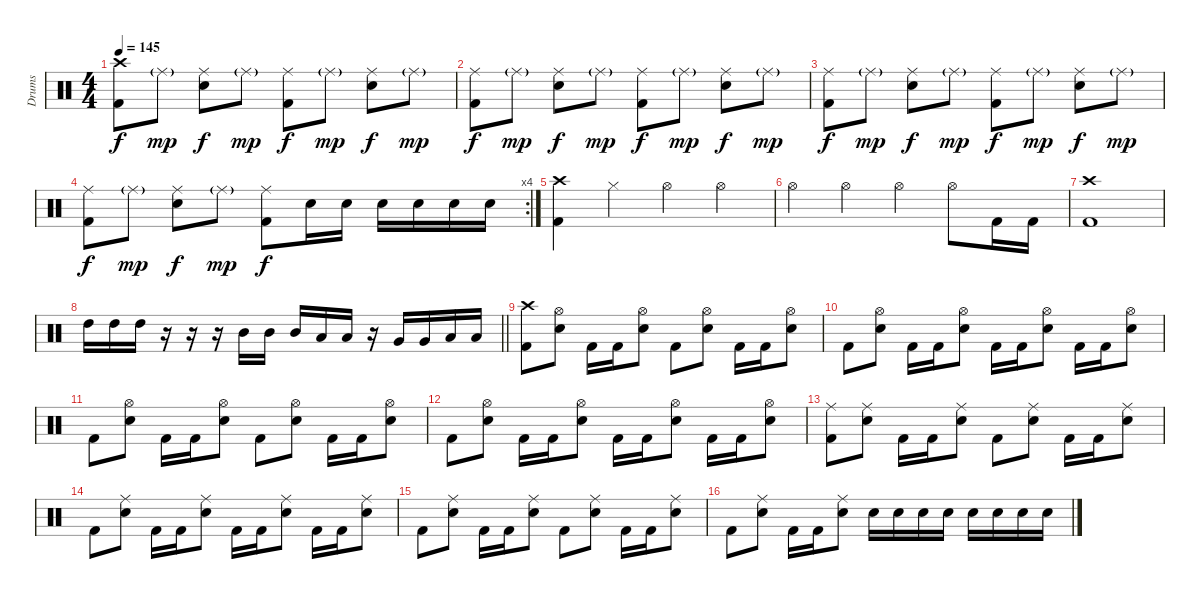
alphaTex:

\track ("Drums" "Drums") {instrument percussion}
\staff {score}
\articulation defaults
\ts (4 4)
\tempo 145
\clef neutral
\ks c
("Crash high (hit)" "Kick (hit) 2").8{dy f} "Ride (middle)"{g}.8{dy mp} ("Ride (middle)" "Snare (hit) 2").8{dy f} "Ride (middle)"{g}.8{dy mp} ("Ride (middle)" "Kick (hit) 2").8{dy f} "Ride (middle)"{g}.8{dy mp} ("Ride (middle)" "Snare (hit) 2").8{dy f} "Ride (middle)"{g}.8{dy mp} |
("Ride (middle)" "Kick (hit) 2").8{dy f} "Ride (middle)"{g}.8{dy mp} ("Ride (middle)" "Snare (hit) 2").8{dy f} "Ride (middle)"{g}.8{dy mp} ("Ride (middle)" "Kick (hit) 2").8{dy f} "Ride (middle)"{g}.8{dy mp} ("Ride (middle)" "Snare (hit) 2").8{dy f} "Ride (middle)"{g}.8{dy mp} |
("Ride (middle)" "Kick (hit) 2").8{dy f} "Ride (middle)"{g}.8{dy mp} ("Ride (middle)" "Snare (hit) 2").8{dy f} "Ride (middle)"{g}.8{dy mp} ("Ride (middle)" "Kick (hit) 2").8{dy f} "Ride (middle)"{g}.8{dy mp} ("Ride (middle)" "Snare (hit) 2").8{dy f} "Ride (middle)"{g}.8{dy mp} |
\rc 4
("Ride (middle)" "Kick (hit) 2").8{dy f} "Ride (middle)"{g}.8{dy mp} ("Ride (middle)" "Snare (hit) 2").8{dy f} "Ride (middle)"{g}.8{dy mp} ("Ride (middle)" "Kick (hit) 2").8{dy f} "Snare (hit) 2".16 "Snare (hit) 2".16 "Snare (hit) 2".16 "Snare (hit) 2".16 "Snare (hit) 2".16 "Snare (hit) 2".16 |
("Crash high (hit)" "Kick (hit) 2").4 "Hi-Hat (closed)".4 "Hi-Hat (open)".4 "Hi-Hat (open)".4 |
"Hi-Hat (open)".4 "Hi-Hat (open)".4 "Hi-Hat (open)".4 "Hi-Hat (open)".8 "Kick (hit) 2".16 "Kick (hit) 2".16 |
("Kick (hit) 2" "Crash high (hit)").1 |
\barLineRight lightlight "High Tom (hit)".16 "High Tom (hit)".16 "High Tom (hit)".16
r.16 r.16 r.16 "Mid Tom (hit)".16 "Mid Tom (hit)".16 "Mid Tom (hit)".16 "Low Tom (hit)".16 "Low Tom (hit)".16 r.16 "Very Low Tom (hit)".16 "Very Low Tom (hit)".16 "Low Floor Tom (hit)".16 "Low Floor Tom (hit)".16 |
\section ("" "")
("Kick (hit) 2" "Crash high (hit)").8 ("Snare (hit) 2" "Hi-Hat (open)").8 "Kick (hit) 2".16 "Kick (hit) 2".16 ("Snare (hit) 2" "Hi-Hat (open)").8 "Kick (hit) 2".8 ("Snare (hit) 2" "Hi-Hat (open)").8 "Kick (hit) 2".16 "Kick (hit) 2".16 ("Snare (hit) 2" "Hi-Hat (open)").8 |
"Kick (hit) 2".8 ("Snare (hit) 2" "Hi-Hat (open)").8 "Kick (hit) 2".16 "Kick (hit) 2".16 ("Snare (hit) 2" "Hi-Hat (open)").8 "Kick (hit) 2".16 "Kick (hit) 2".16 ("Snare (hit) 2" "Hi-Hat (open)").8 "Kick (hit) 2".16 "Kick (hit) 2".16 ("Snare (hit) 2" "Hi-Hat (open)").8 |
"Kick (hit) 2".8 ("Snare (hit) 2" "Hi-Hat (open)").8 "Kick (hit) 2".16 "Kick (hit) 2".16 ("Snare (hit) 2" "Hi-Hat (open)").8 "Kick (hit) 2".8 ("Snare (hit) 2" "Hi-Hat (open)").8 "Kick (hit) 2".16 "Kick (hit) 2".16 ("Snare (hit) 2" "Hi-Hat (open)").8 |
"Kick (hit) 2".8 ("Snare (hit) 2" "Hi-Hat (open)").8 "Kick (hit) 2".16 "Kick (hit) 2".16 ("Snare (hit) 2" "Hi-Hat (open)").8 "Kick (hit) 2".16 "Kick (hit) 2".16 ("Snare (hit) 2" "Hi-Hat (open)").8 "Kick (hit) 2".16 "Kick (hit) 2".16 ("Snare (hit) 2" "Hi-Hat (open)").8 |
("Kick (hit) 2" "Ride (middle)").8 ("Snare (hit) 2" "Ride (middle)").8 "Kick (hit) 2".16 "Kick (hit) 2".16 ("Snare (hit) 2" "Ride (middle)").8 "Kick (hit) 2".8 ("Snare (hit) 2" "Ride (middle)").8 "Kick (hit) 2".16 "Kick (hit) 2".16 ("Snare (hit) 2" "Ride (middle)").8 |
"Kick (hit) 2".8 ("Snare (hit) 2" "Ride (middle)").8 "Kick (hit) 2".16 "Kick (hit) 2".16 ("Snare (hit) 2" "Ride (middle)").8 "Kick (hit) 2".16 "Kick (hit) 2".16 ("Snare (hit) 2" "Ride (middle)").8 "Kick (hit) 2".16 "Kick (hit) 2".16 ("Snare (hit) 2" "Ride (middle)").8 |
"Kick (hit) 2".8 ("Snare (hit) 2" "Ride (middle)").8 "Kick (hit) 2".16 "Kick (hit) 2".16 ("Snare (hit) 2" "Ride (middle)").8 "Kick (hit) 2".8 ("Snare (hit) 2" "Ride (middle)").8 "Kick (hit) 2".16 "Kick (hit) 2".16 ("Snare (hit) 2" "Ride (middle)").8 |
"Kick (hit) 2".8 ("Snare (hit) 2" "Ride (middle)").8 "Kick (hit) 2".16 "Kick (hit) 2".16 ("Snare (hit) 2" "Ride (middle)").8 "Snare (hit) 2".16 "Snare (hit) 2".16 "Snare (hit) 2".16 "Snare (hit) 2".16 "Snare (hit) 2".16 "Snare (hit) 2".16 "Snare (hit) 2".16 "Snare (hit) 2".16
